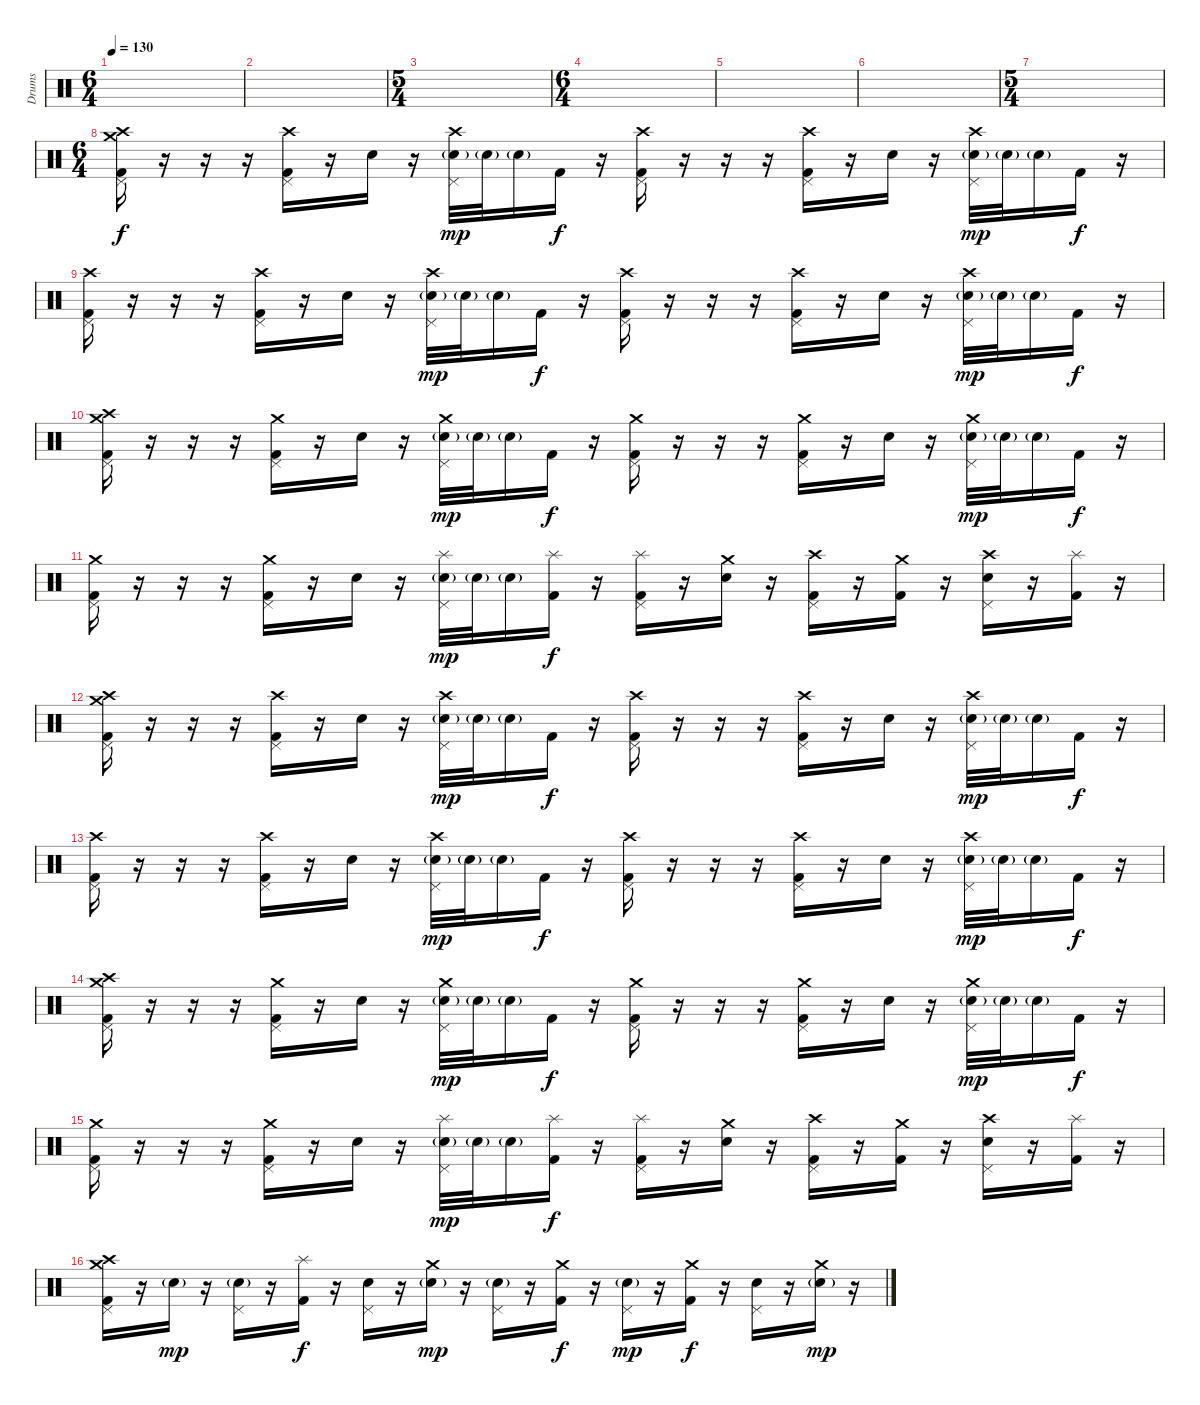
\track ("Drums" "Drums") {instrument percussion}
\staff {score}
\articulation defaults
\ts (6 4)
\tempo 130
\clef neutral
\ks c
|
|
\ts (5 4)
|
\ts (6 4)
|
|
|
\ts (5 4)
|
\ts (6 4)
("Crash medium (hit)" "Crash high (hit)" "Pedal Hi-Hat (hit)" "Kick (hit) 2").16{dy f} r.16 r.16 r.16 ("Crash high (hit)" "Pedal Hi-Hat (hit)" "Kick (hit) 2").16 r.16 "Electric Snare (hit)".16 r.16 ("Crash high (hit)" "Pedal Hi-Hat (hit)" "Electric Snare (hit)"{g}).32{dy mp} "Electric Snare (hit)"{g}.32 "Electric Snare (hit)"{g}.16 "Kick (hit) 2".16{dy f} r.16 ("Crash high (hit)" "Pedal Hi-Hat (hit)" "Kick (hit) 2").16 r.16 r.16 r.16 ("Crash high (hit)" "Pedal Hi-Hat (hit)" "Kick (hit) 2").16 r.16 "Electric Snare (hit)".16 r.16 ("Crash high (hit)" "Pedal Hi-Hat (hit)" "Electric Snare (hit)"{g}).32{dy mp} "Electric Snare (hit)"{g}.32 "Electric Snare (hit)"{g}.16 "Kick (hit) 2".16{dy f} r.16 |
("Crash high (hit)" "Pedal Hi-Hat (hit)" "Kick (hit) 2").16 r.16 r.16 r.16 ("Crash high (hit)" "Pedal Hi-Hat (hit)" "Kick (hit) 2").16 r.16 "Electric Snare (hit)".16 r.16 ("Crash high (hit)" "Pedal Hi-Hat (hit)" "Electric Snare (hit)"{g}).32{dy mp} "Electric Snare (hit)"{g}.32 "Electric Snare (hit)"{g}.16 "Kick (hit) 2".16{dy f} r.16 ("Crash high (hit)" "Pedal Hi-Hat (hit)" "Kick (hit) 2").16 r.16 r.16 r.16 ("Crash high (hit)" "Pedal Hi-Hat (hit)" "Kick (hit) 2").16 r.16 "Electric Snare (hit)".16 r.16 ("Crash high (hit)" "Pedal Hi-Hat (hit)" "Electric Snare (hit)"{g}).32{dy mp} "Electric Snare (hit)"{g}.32 "Electric Snare (hit)"{g}.16 "Kick (hit) 2".16{dy f} r.16 |
("Crash medium (hit)" "Crash high (hit)" "Pedal Hi-Hat (hit)" "Kick (hit) 2").16 r.16 r.16 r.16 ("Crash medium (hit)" "Pedal Hi-Hat (hit)" "Kick (hit) 2").16 r.16 "Electric Snare (hit)".16 r.16 ("Crash medium (hit)" "Pedal Hi-Hat (hit)" "Electric Snare (hit)"{g}).32{dy mp} "Electric Snare (hit)"{g}.32 "Electric Snare (hit)"{g}.16 "Kick (hit) 2".16{dy f} r.16 ("Crash medium (hit)" "Pedal Hi-Hat (hit)" "Kick (hit) 2").16 r.16 r.16 r.16 ("Crash medium (hit)" "Pedal Hi-Hat (hit)" "Kick (hit) 2").16 r.16 "Electric Snare (hit)".16 r.16 ("Crash medium (hit)" "Pedal Hi-Hat (hit)" "Electric Snare (hit)"{g}).32{dy mp} "Electric Snare (hit)"{g}.32 "Electric Snare (hit)"{g}.16 "Kick (hit) 2".16{dy f} r.16 |
("Crash medium (hit)" "Pedal Hi-Hat (hit)" "Kick (hit) 2").16 r.16 r.16 r.16 ("Crash medium (hit)" "Pedal Hi-Hat (hit)" "Kick (hit) 2").16 r.16 "Electric Snare (hit)".16 r.16 ("Splash (hit)" "Pedal Hi-Hat (hit)" "Electric Snare (hit)"{g}).32{dy mp} "Electric Snare (hit)"{g}.32 "Electric Snare (hit)"{g}.16 ("Splash (hit)" "Kick (hit) 2").16{dy f} r.16 ("Splash (hit)" "Pedal Hi-Hat (hit)" "Kick (hit) 2").16 r.16 ("Crash medium (hit)" "Electric Snare (hit)").16 r.16 ("Crash high (hit)" "Pedal Hi-Hat (hit)" "Kick (hit) 2").16 r.16 ("Crash medium (hit)" "Kick (hit) 2").16 r.16 ("Crash high (hit)" "Pedal Hi-Hat (hit)" "Electric Snare (hit)").16 r.16 ("Splash (hit)" "Kick (hit) 2").16 r.16 |
("Crash medium (hit)" "Crash high (hit)" "Pedal Hi-Hat (hit)" "Kick (hit) 2").16 r.16 r.16 r.16 ("Crash high (hit)" "Pedal Hi-Hat (hit)" "Kick (hit) 2").16 r.16 "Electric Snare (hit)".16 r.16 ("Crash high (hit)" "Pedal Hi-Hat (hit)" "Electric Snare (hit)"{g}).32{dy mp} "Electric Snare (hit)"{g}.32 "Electric Snare (hit)"{g}.16 "Kick (hit) 2".16{dy f} r.16 ("Crash high (hit)" "Pedal Hi-Hat (hit)" "Kick (hit) 2").16 r.16 r.16 r.16 ("Crash high (hit)" "Pedal Hi-Hat (hit)" "Kick (hit) 2").16 r.16 "Electric Snare (hit)".16 r.16 ("Crash high (hit)" "Pedal Hi-Hat (hit)" "Electric Snare (hit)"{g}).32{dy mp} "Electric Snare (hit)"{g}.32 "Electric Snare (hit)"{g}.16 "Kick (hit) 2".16{dy f} r.16 |
("Crash high (hit)" "Pedal Hi-Hat (hit)" "Kick (hit) 2").16 r.16 r.16 r.16 ("Crash high (hit)" "Pedal Hi-Hat (hit)" "Kick (hit) 2").16 r.16 "Electric Snare (hit)".16 r.16 ("Crash high (hit)" "Pedal Hi-Hat (hit)" "Electric Snare (hit)"{g}).32{dy mp} "Electric Snare (hit)"{g}.32 "Electric Snare (hit)"{g}.16 "Kick (hit) 2".16{dy f} r.16 ("Crash high (hit)" "Pedal Hi-Hat (hit)" "Kick (hit) 2").16 r.16 r.16 r.16 ("Crash high (hit)" "Pedal Hi-Hat (hit)" "Kick (hit) 2").16 r.16 "Electric Snare (hit)".16 r.16 ("Crash high (hit)" "Pedal Hi-Hat (hit)" "Electric Snare (hit)"{g}).32{dy mp} "Electric Snare (hit)"{g}.32 "Electric Snare (hit)"{g}.16 "Kick (hit) 2".16{dy f} r.16 |
("Crash medium (hit)" "Crash high (hit)" "Pedal Hi-Hat (hit)" "Kick (hit) 2").16 r.16 r.16 r.16 ("Crash medium (hit)" "Pedal Hi-Hat (hit)" "Kick (hit) 2").16 r.16 "Electric Snare (hit)".16 r.16 ("Crash medium (hit)" "Pedal Hi-Hat (hit)" "Electric Snare (hit)"{g}).32{dy mp} "Electric Snare (hit)"{g}.32 "Electric Snare (hit)"{g}.16 "Kick (hit) 2".16{dy f} r.16 ("Crash medium (hit)" "Pedal Hi-Hat (hit)" "Kick (hit) 2").16 r.16 r.16 r.16 ("Crash medium (hit)" "Pedal Hi-Hat (hit)" "Kick (hit) 2").16 r.16 "Electric Snare (hit)".16 r.16 ("Crash medium (hit)" "Pedal Hi-Hat (hit)" "Electric Snare (hit)"{g}).32{dy mp} "Electric Snare (hit)"{g}.32 "Electric Snare (hit)"{g}.16 "Kick (hit) 2".16{dy f} r.16 |
("Crash medium (hit)" "Pedal Hi-Hat (hit)" "Kick (hit) 2").16 r.16 r.16 r.16 ("Crash medium (hit)" "Pedal Hi-Hat (hit)" "Kick (hit) 2").16 r.16 "Electric Snare (hit)".16 r.16 ("Splash (hit)" "Pedal Hi-Hat (hit)" "Electric Snare (hit)"{g}).32{dy mp} "Electric Snare (hit)"{g}.32 "Electric Snare (hit)"{g}.16 ("Splash (hit)" "Kick (hit) 2").16{dy f} r.16 ("Splash (hit)" "Pedal Hi-Hat (hit)" "Kick (hit) 2").16 r.16 ("Crash medium (hit)" "Electric Snare (hit)").16 r.16 ("Crash high (hit)" "Pedal Hi-Hat (hit)" "Kick (hit) 2").16 r.16 ("Crash medium (hit)" "Kick (hit) 2").16 r.16 ("Crash high (hit)" "Pedal Hi-Hat (hit)" "Electric Snare (hit)").16 r.16 ("Splash (hit)" "Kick (hit) 2").16 r.16 |
("Crash medium (hit)" "Crash high (hit)" "Pedal Hi-Hat (hit)" "Kick (hit) 2").16 r.16 "Electric Snare (hit)"{g}.16{dy mp} r.16 ("Pedal Hi-Hat (hit)" "Electric Snare (hit)"{g}).16 r.16 ("Splash (hit)" "Kick (hit) 2").16{dy f} r.16 ("Pedal Hi-Hat (hit)" "Electric Snare (hit)").16 r.16 ("Crash medium (hit)" "Electric Snare (hit)"{g}).16{dy mp} r.16 ("Pedal Hi-Hat (hit)" "Electric Snare (hit)"{g}).16 r.16 ("Crash medium (hit)" "Kick (hit) 2").16{dy f} r.16 ("Pedal Hi-Hat (hit)" "Electric Snare (hit)"{g}).16{dy mp} r.16 ("Crash medium (hit)" "Kick (hit) 2").16{dy f} r.16 ("Pedal Hi-Hat (hit)" "Electric Snare (hit)").16 r.16 ("Crash medium (hit)" "Electric Snare (hit)"{g}).16{dy mp} r.16
